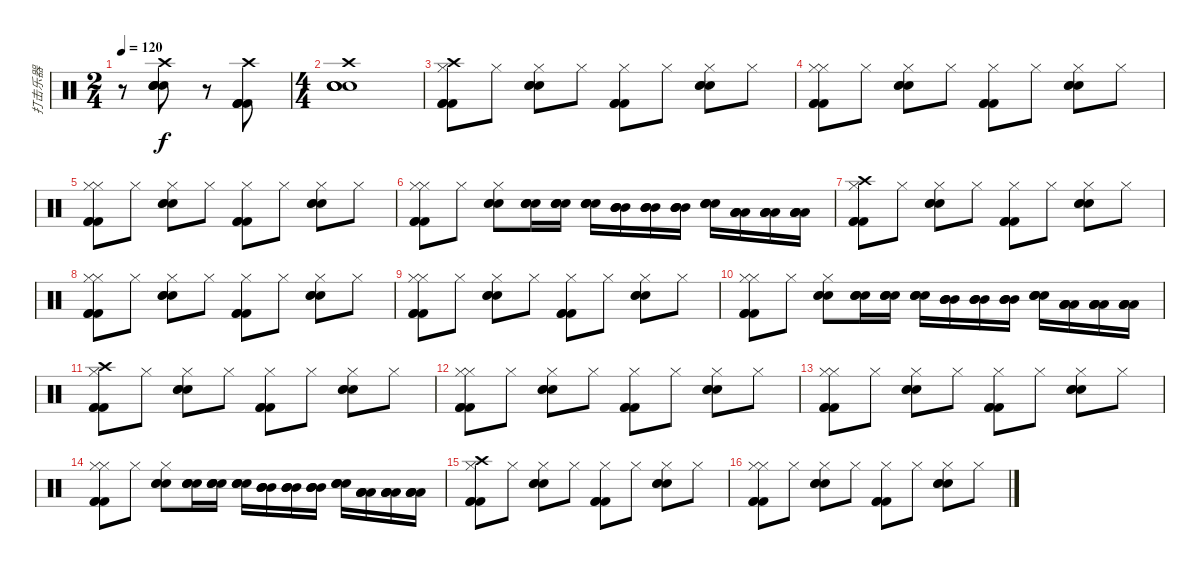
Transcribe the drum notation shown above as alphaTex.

\track ("打击乐器" "打击乐器") {instrument percussion}
\staff {score}
\articulation defaults
\ts (2 4)
\tempo 120
\clef neutral
\ks c
r.8{dy f} ("Snare (hit) 2" "Snare (hit) 2" "Snare (hit) 2" "Snare (hit) 2" "Crash high (hit)").8 r.8 ("Kick (hit) 2" "Kick (hit) 2" "Kick (hit) 2" "Kick (hit) 2" "Crash high (hit)").8 |
\ts (4 4)
("Snare (hit) 2" "Snare (hit) 2" "Snare (hit) 2" "Snare (hit) 2" "Crash high (hit)").1 |
("Kick (hit) 2" "Kick (hit) 2" "Kick (hit) 2" "Hi-Hat (closed)" "Crash high (hit)").8 "Hi-Hat (closed)".8 ("Snare (hit) 2" "Snare (hit) 2" "Snare (hit) 2" "Hi-Hat (closed)").8 "Hi-Hat (closed)".8 ("Kick (hit) 2" "Kick (hit) 2" "Kick (hit) 2" "Hi-Hat (closed)").8 "Hi-Hat (closed)".8 ("Snare (hit) 2" "Snare (hit) 2" "Snare (hit) 2" "Hi-Hat (closed)").8 "Hi-Hat (closed)".8 |
("Kick (hit) 2" "Kick (hit) 2" "Kick (hit) 2" "Hi-Hat (closed)" "Hi-Hat (closed)").8 "Hi-Hat (closed)".8 ("Snare (hit) 2" "Snare (hit) 2" "Snare (hit) 2" "Hi-Hat (closed)").8 "Hi-Hat (closed)".8 ("Kick (hit) 2" "Kick (hit) 2" "Kick (hit) 2" "Hi-Hat (closed)").8 "Hi-Hat (closed)".8 ("Snare (hit) 2" "Snare (hit) 2" "Snare (hit) 2" "Hi-Hat (closed)").8 "Hi-Hat (closed)".8 |
("Kick (hit) 2" "Kick (hit) 2" "Kick (hit) 2" "Hi-Hat (closed)" "Hi-Hat (closed)").8 "Hi-Hat (closed)".8 ("Snare (hit) 2" "Snare (hit) 2" "Snare (hit) 2" "Hi-Hat (closed)").8 "Hi-Hat (closed)".8 ("Kick (hit) 2" "Kick (hit) 2" "Kick (hit) 2" "Hi-Hat (closed)").8 "Hi-Hat (closed)".8 ("Snare (hit) 2" "Snare (hit) 2" "Snare (hit) 2" "Hi-Hat (closed)").8 "Hi-Hat (closed)".8 |
("Kick (hit) 2" "Kick (hit) 2" "Kick (hit) 2" "Hi-Hat (closed)" "Hi-Hat (closed)").8 "Hi-Hat (closed)".8 ("Snare (hit) 2" "Snare (hit) 2" "Snare (hit) 2" "Hi-Hat (closed)").8 ("Snare (hit) 2" "Snare (hit) 2" "Snare (hit) 2" "Snare (hit) 2").16 ("Snare (hit) 2" "Snare (hit) 2" "Snare (hit) 2" "Snare (hit) 2").16 ("Snare (hit) 2" "Snare (hit) 2" "Snare (hit) 2" "Snare (hit) 2").16 ("Mid Tom (hit)" "Mid Tom (hit)" "Mid Tom (hit)" "Mid Tom (hit)").16 ("Mid Tom (hit)" "Mid Tom (hit)" "Mid Tom (hit)" "Mid Tom (hit)").16 ("Mid Tom (hit)" "Mid Tom (hit)" "Mid Tom (hit)" "Mid Tom (hit)").16 ("Snare (hit) 2" "Snare (hit) 2" "Snare (hit) 2" "Snare (hit) 2").16 ("Low Tom (hit)" "Low Tom (hit)" "Low Tom (hit)" "Low Tom (hit)").16 ("Low Tom (hit)" "Low Tom (hit)" "Low Tom (hit)" "Low Tom (hit)").16 ("Low Tom (hit)" "Low Tom (hit)" "Low Tom (hit)" "Low Tom (hit)").16 |
("Kick (hit) 2" "Kick (hit) 2" "Kick (hit) 2" "Hi-Hat (closed)" "Crash high (hit)").8 "Hi-Hat (closed)".8 ("Snare (hit) 2" "Snare (hit) 2" "Snare (hit) 2" "Hi-Hat (closed)").8 "Hi-Hat (closed)".8 ("Kick (hit) 2" "Kick (hit) 2" "Kick (hit) 2" "Hi-Hat (closed)").8 "Hi-Hat (closed)".8 ("Snare (hit) 2" "Snare (hit) 2" "Snare (hit) 2" "Hi-Hat (closed)").8 "Hi-Hat (closed)".8 |
("Kick (hit) 2" "Kick (hit) 2" "Kick (hit) 2" "Hi-Hat (closed)" "Hi-Hat (closed)").8 "Hi-Hat (closed)".8 ("Snare (hit) 2" "Snare (hit) 2" "Snare (hit) 2" "Hi-Hat (closed)").8 "Hi-Hat (closed)".8 ("Kick (hit) 2" "Kick (hit) 2" "Kick (hit) 2" "Hi-Hat (closed)").8 "Hi-Hat (closed)".8 ("Snare (hit) 2" "Snare (hit) 2" "Snare (hit) 2" "Hi-Hat (closed)").8 "Hi-Hat (closed)".8 |
("Kick (hit) 2" "Kick (hit) 2" "Kick (hit) 2" "Hi-Hat (closed)" "Hi-Hat (closed)").8 "Hi-Hat (closed)".8 ("Snare (hit) 2" "Snare (hit) 2" "Snare (hit) 2" "Hi-Hat (closed)").8 "Hi-Hat (closed)".8 ("Kick (hit) 2" "Kick (hit) 2" "Kick (hit) 2" "Hi-Hat (closed)").8 "Hi-Hat (closed)".8 ("Snare (hit) 2" "Snare (hit) 2" "Snare (hit) 2" "Hi-Hat (closed)").8 "Hi-Hat (closed)".8 |
("Kick (hit) 2" "Kick (hit) 2" "Kick (hit) 2" "Hi-Hat (closed)" "Hi-Hat (closed)").8 "Hi-Hat (closed)".8 ("Snare (hit) 2" "Snare (hit) 2" "Snare (hit) 2" "Hi-Hat (closed)").8 ("Snare (hit) 2" "Snare (hit) 2" "Snare (hit) 2" "Snare (hit) 2").16 ("Snare (hit) 2" "Snare (hit) 2" "Snare (hit) 2" "Snare (hit) 2").16 ("Snare (hit) 2" "Snare (hit) 2" "Snare (hit) 2" "Snare (hit) 2").16 ("Mid Tom (hit)" "Mid Tom (hit)" "Mid Tom (hit)" "Mid Tom (hit)").16 ("Mid Tom (hit)" "Mid Tom (hit)" "Mid Tom (hit)" "Mid Tom (hit)").16 ("Mid Tom (hit)" "Mid Tom (hit)" "Mid Tom (hit)" "Mid Tom (hit)").16 ("Snare (hit) 2" "Snare (hit) 2" "Snare (hit) 2" "Snare (hit) 2").16 ("Low Tom (hit)" "Low Tom (hit)" "Low Tom (hit)" "Low Tom (hit)").16 ("Low Tom (hit)" "Low Tom (hit)" "Low Tom (hit)" "Low Tom (hit)").16 ("Low Tom (hit)" "Low Tom (hit)" "Low Tom (hit)" "Low Tom (hit)").16 |
("Kick (hit) 2" "Kick (hit) 2" "Kick (hit) 2" "Hi-Hat (closed)" "Crash high (hit)").8 "Hi-Hat (closed)".8 ("Snare (hit) 2" "Snare (hit) 2" "Snare (hit) 2" "Hi-Hat (closed)").8 "Hi-Hat (closed)".8 ("Kick (hit) 2" "Kick (hit) 2" "Kick (hit) 2" "Hi-Hat (closed)").8 "Hi-Hat (closed)".8 ("Snare (hit) 2" "Snare (hit) 2" "Snare (hit) 2" "Hi-Hat (closed)").8 "Hi-Hat (closed)".8 |
("Kick (hit) 2" "Kick (hit) 2" "Kick (hit) 2" "Hi-Hat (closed)" "Hi-Hat (closed)").8 "Hi-Hat (closed)".8 ("Snare (hit) 2" "Snare (hit) 2" "Snare (hit) 2" "Hi-Hat (closed)").8 "Hi-Hat (closed)".8 ("Kick (hit) 2" "Kick (hit) 2" "Kick (hit) 2" "Hi-Hat (closed)").8 "Hi-Hat (closed)".8 ("Snare (hit) 2" "Snare (hit) 2" "Snare (hit) 2" "Hi-Hat (closed)").8 "Hi-Hat (closed)".8 |
("Kick (hit) 2" "Kick (hit) 2" "Kick (hit) 2" "Hi-Hat (closed)" "Hi-Hat (closed)").8 "Hi-Hat (closed)".8 ("Snare (hit) 2" "Snare (hit) 2" "Snare (hit) 2" "Hi-Hat (closed)").8 "Hi-Hat (closed)".8 ("Kick (hit) 2" "Kick (hit) 2" "Kick (hit) 2" "Hi-Hat (closed)").8 "Hi-Hat (closed)".8 ("Snare (hit) 2" "Snare (hit) 2" "Snare (hit) 2" "Hi-Hat (closed)").8 "Hi-Hat (closed)".8 |
("Kick (hit) 2" "Kick (hit) 2" "Kick (hit) 2" "Hi-Hat (closed)" "Hi-Hat (closed)").8 "Hi-Hat (closed)".8 ("Snare (hit) 2" "Snare (hit) 2" "Snare (hit) 2" "Hi-Hat (closed)").8 ("Snare (hit) 2" "Snare (hit) 2" "Snare (hit) 2" "Snare (hit) 2").16 ("Snare (hit) 2" "Snare (hit) 2" "Snare (hit) 2" "Snare (hit) 2").16 ("Snare (hit) 2" "Snare (hit) 2" "Snare (hit) 2" "Snare (hit) 2").16 ("Mid Tom (hit)" "Mid Tom (hit)" "Mid Tom (hit)" "Mid Tom (hit)").16 ("Mid Tom (hit)" "Mid Tom (hit)" "Mid Tom (hit)" "Mid Tom (hit)").16 ("Mid Tom (hit)" "Mid Tom (hit)" "Mid Tom (hit)" "Mid Tom (hit)").16 ("Snare (hit) 2" "Snare (hit) 2" "Snare (hit) 2" "Snare (hit) 2").16 ("Low Tom (hit)" "Low Tom (hit)" "Low Tom (hit)" "Low Tom (hit)").16 ("Low Tom (hit)" "Low Tom (hit)" "Low Tom (hit)" "Low Tom (hit)").16 ("Low Tom (hit)" "Low Tom (hit)" "Low Tom (hit)" "Low Tom (hit)").16 |
("Kick (hit) 2" "Kick (hit) 2" "Kick (hit) 2" "Hi-Hat (closed)" "Crash high (hit)").8 "Hi-Hat (closed)".8 ("Snare (hit) 2" "Snare (hit) 2" "Snare (hit) 2" "Hi-Hat (closed)").8 "Hi-Hat (closed)".8 ("Kick (hit) 2" "Kick (hit) 2" "Kick (hit) 2" "Hi-Hat (closed)").8 "Hi-Hat (closed)".8 ("Snare (hit) 2" "Snare (hit) 2" "Snare (hit) 2" "Hi-Hat (closed)").8 "Hi-Hat (closed)".8 |
("Kick (hit) 2" "Kick (hit) 2" "Kick (hit) 2" "Hi-Hat (closed)" "Hi-Hat (closed)").8 "Hi-Hat (closed)".8 ("Snare (hit) 2" "Snare (hit) 2" "Snare (hit) 2" "Hi-Hat (closed)").8 "Hi-Hat (closed)".8 ("Kick (hit) 2" "Kick (hit) 2" "Kick (hit) 2" "Hi-Hat (closed)").8 "Hi-Hat (closed)".8 ("Snare (hit) 2" "Snare (hit) 2" "Snare (hit) 2" "Hi-Hat (closed)").8 "Hi-Hat (closed)".8
